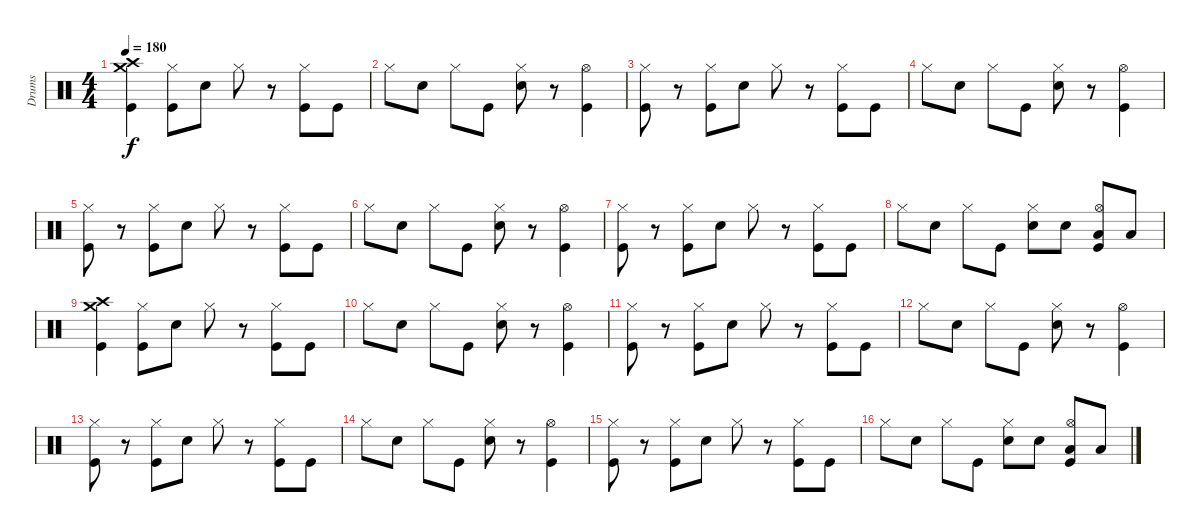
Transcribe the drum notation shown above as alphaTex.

\track ("Drums" "Drums") {instrument percussion}
\staff {score}
\articulation defaults
\ts (4 4)
\tempo 180
\clef neutral
\ks c
("Crash medium (hit)" "Crash high (hit)" "Kick (hit)").4{dy f} ("Hi-Hat (closed)" "Kick (hit)").8 "Snare (hit) 2".8 "Hi-Hat (closed)".8 r.8 ("Hi-Hat (closed)" "Kick (hit)").8 "Kick (hit)".8 |
"Hi-Hat (closed)".8 "Snare (hit) 2".8 "Hi-Hat (closed)".8 "Kick (hit)".8 ("Hi-Hat (closed)" "Snare (hit) 2").8 r.8 ("Hi-Hat (open)" "Kick (hit)").4 |
("Hi-Hat (closed)" "Kick (hit)").8 r.8 ("Hi-Hat (closed)" "Kick (hit)").8 "Snare (hit) 2".8 "Hi-Hat (closed)".8 r.8 ("Hi-Hat (closed)" "Kick (hit)").8 "Kick (hit)".8 |
"Hi-Hat (closed)".8 "Snare (hit) 2".8 "Hi-Hat (closed)".8 "Kick (hit)".8 ("Hi-Hat (closed)" "Snare (hit) 2").8 r.8 ("Hi-Hat (open)" "Kick (hit)").4 |
("Hi-Hat (closed)" "Kick (hit)").8 r.8 ("Hi-Hat (closed)" "Kick (hit)").8 "Snare (hit) 2".8 "Hi-Hat (closed)".8 r.8 ("Hi-Hat (closed)" "Kick (hit)").8 "Kick (hit)".8 |
"Hi-Hat (closed)".8 "Snare (hit) 2".8 "Hi-Hat (closed)".8 "Kick (hit)".8 ("Hi-Hat (closed)" "Snare (hit) 2").8 r.8 ("Hi-Hat (open)" "Kick (hit)").4 |
("Hi-Hat (closed)" "Kick (hit)").8 r.8 ("Hi-Hat (closed)" "Kick (hit)").8 "Snare (hit) 2".8 "Hi-Hat (closed)".8 r.8 ("Hi-Hat (closed)" "Kick (hit)").8 "Kick (hit)".8 |
"Hi-Hat (closed)".8 "Snare (hit) 2".8 "Hi-Hat (closed)".8 "Kick (hit)".8 ("Hi-Hat (closed)" "Snare (hit) 2").8 "Snare (hit) 2".8 ("Low Tom (hit)" "Hi-Hat (open)" "Kick (hit)").8 "Low Tom (hit)".8 |
("Crash medium (hit)" "Crash high (hit)" "Kick (hit)").4 ("Hi-Hat (closed)" "Kick (hit)").8 "Snare (hit) 2".8 "Hi-Hat (closed)".8 r.8 ("Hi-Hat (closed)" "Kick (hit)").8 "Kick (hit)".8 |
"Hi-Hat (closed)".8 "Snare (hit) 2".8 "Hi-Hat (closed)".8 "Kick (hit)".8 ("Hi-Hat (closed)" "Snare (hit) 2").8 r.8 ("Hi-Hat (open)" "Kick (hit)").4 |
("Hi-Hat (closed)" "Kick (hit)").8 r.8 ("Hi-Hat (closed)" "Kick (hit)").8 "Snare (hit) 2".8 "Hi-Hat (closed)".8 r.8 ("Hi-Hat (closed)" "Kick (hit)").8 "Kick (hit)".8 |
"Hi-Hat (closed)".8 "Snare (hit) 2".8 "Hi-Hat (closed)".8 "Kick (hit)".8 ("Hi-Hat (closed)" "Snare (hit) 2").8 r.8 ("Hi-Hat (open)" "Kick (hit)").4 |
("Hi-Hat (closed)" "Kick (hit)").8 r.8 ("Hi-Hat (closed)" "Kick (hit)").8 "Snare (hit) 2".8 "Hi-Hat (closed)".8 r.8 ("Hi-Hat (closed)" "Kick (hit)").8 "Kick (hit)".8 |
"Hi-Hat (closed)".8 "Snare (hit) 2".8 "Hi-Hat (closed)".8 "Kick (hit)".8 ("Hi-Hat (closed)" "Snare (hit) 2").8 r.8 ("Hi-Hat (open)" "Kick (hit)").4 |
("Hi-Hat (closed)" "Kick (hit)").8 r.8 ("Hi-Hat (closed)" "Kick (hit)").8 "Snare (hit) 2".8 "Hi-Hat (closed)".8 r.8 ("Hi-Hat (closed)" "Kick (hit)").8 "Kick (hit)".8 |
"Hi-Hat (closed)".8 "Snare (hit) 2".8 "Hi-Hat (closed)".8 "Kick (hit)".8 ("Hi-Hat (closed)" "Snare (hit) 2").8 "Snare (hit) 2".8 ("Low Tom (hit)" "Hi-Hat (open)" "Kick (hit)").8 "Low Tom (hit)".8
